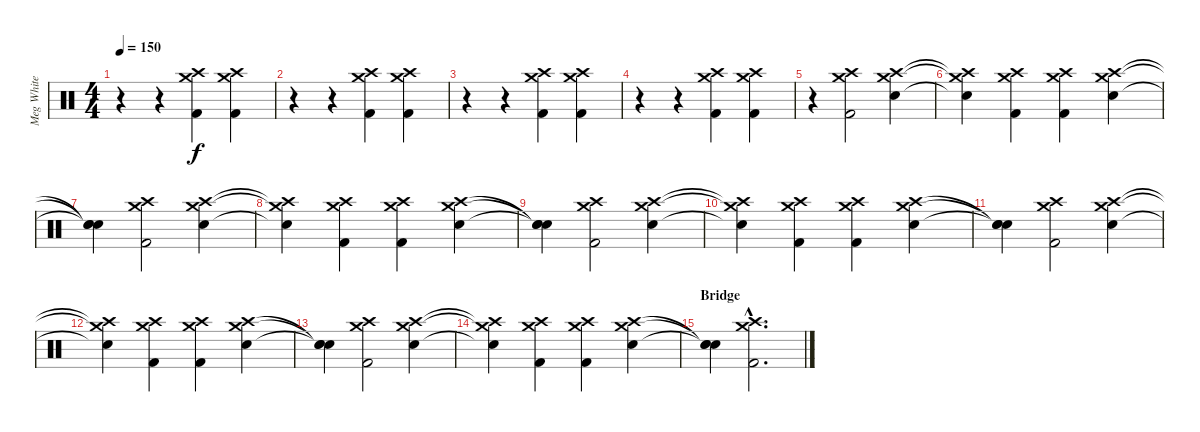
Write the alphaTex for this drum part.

\track ("Meg White" "Meg White") {instrument percussion}
\staff {score}
\articulation defaults
\ts (4 4)
\tempo 150
\clef neutral
\ks c
r.4{dy f} r.4 ("Crash high (hit)" "Crash medium (hit)" "Kick (hit) 2").4 ("Crash high (hit)" "Crash medium (hit)" "Kick (hit) 2").4 |
r.4 r.4 ("Crash high (hit)" "Crash medium (hit)" "Kick (hit) 2").4 ("Crash high (hit)" "Crash medium (hit)" "Kick (hit) 2").4 |
r.4 r.4 ("Crash high (hit)" "Crash medium (hit)" "Kick (hit) 2").4 ("Crash high (hit)" "Crash medium (hit)" "Kick (hit) 2").4 |
r.4 r.4 ("Crash high (hit)" "Crash medium (hit)" "Kick (hit) 2").4 ("Crash high (hit)" "Crash medium (hit)" "Kick (hit) 2").4 |
r.4 ("Crash high (hit)" "Crash medium (hit)" "Kick (hit) 2").2 ("Crash high (hit)" "Crash medium (hit)" "Electric Snare (hit)").4 |
("Crash high (hit)"{t} "Crash medium (hit)"{t} "Electric Snare (hit)"{t}).4 ("Crash high (hit)" "Crash medium (hit)" "Kick (hit) 2").4 ("Crash high (hit)" "Crash medium (hit)" "Kick (hit) 2").4 ("Crash high (hit)" "Crash medium (hit)" "Electric Snare (hit)").4 |
("Snare (hit)"{t} "Snare (hit)"{t} "Snare (hit)"{t}).4 ("Crash high (hit)" "Crash medium (hit)" "Kick (hit) 2").2 ("Crash high (hit)" "Crash medium (hit)" "Electric Snare (hit)").4 |
("Crash high (hit)"{t} "Crash medium (hit)"{t} "Electric Snare (hit)"{t}).4 ("Crash high (hit)" "Crash medium (hit)" "Kick (hit) 2").4 ("Crash high (hit)" "Crash medium (hit)" "Kick (hit) 2").4 ("Crash high (hit)" "Crash medium (hit)" "Electric Snare (hit)").4 |
("Snare (hit)"{t} "Snare (hit)"{t} "Snare (hit)"{t}).4 ("Crash high (hit)" "Crash medium (hit)" "Kick (hit) 2").2 ("Crash high (hit)" "Crash medium (hit)" "Electric Snare (hit)").4 |
("Crash high (hit)"{t} "Crash medium (hit)"{t} "Electric Snare (hit)"{t}).4 ("Crash high (hit)" "Crash medium (hit)" "Kick (hit) 2").4 ("Crash high (hit)" "Crash medium (hit)" "Kick (hit) 2").4 ("Crash high (hit)" "Crash medium (hit)" "Electric Snare (hit)").4 |
("Snare (hit)"{t} "Snare (hit)"{t} "Snare (hit)"{t}).4 ("Crash high (hit)" "Crash medium (hit)" "Kick (hit) 2").2 ("Crash high (hit)" "Crash medium (hit)" "Electric Snare (hit)").4 |
("Crash high (hit)"{t} "Crash medium (hit)"{t} "Electric Snare (hit)"{t}).4 ("Crash high (hit)" "Crash medium (hit)" "Kick (hit) 2").4 ("Crash high (hit)" "Crash medium (hit)" "Kick (hit) 2").4 ("Crash high (hit)" "Crash medium (hit)" "Electric Snare (hit)").4 |
("Snare (hit)"{t} "Snare (hit)"{t} "Snare (hit)"{t}).4 ("Crash high (hit)" "Crash medium (hit)" "Kick (hit) 2").2 ("Crash high (hit)" "Crash medium (hit)" "Electric Snare (hit)").4 |
("Crash high (hit)"{t} "Crash medium (hit)"{t} "Electric Snare (hit)"{t}).4 ("Crash high (hit)" "Crash medium (hit)" "Kick (hit) 2").4 ("Crash high (hit)" "Crash medium (hit)" "Kick (hit) 2").4 ("Crash high (hit)" "Crash medium (hit)" "Electric Snare (hit)").4 |
\section ("" "Bridge")
("Snare (hit)"{t} "Snare (hit)"{t} "Snare (hit)"{t}).4 ("Crash high (hit)"{hac} "Crash medium (hit)"{hac} "Kick (hit) 2"{hac}).2{d}
